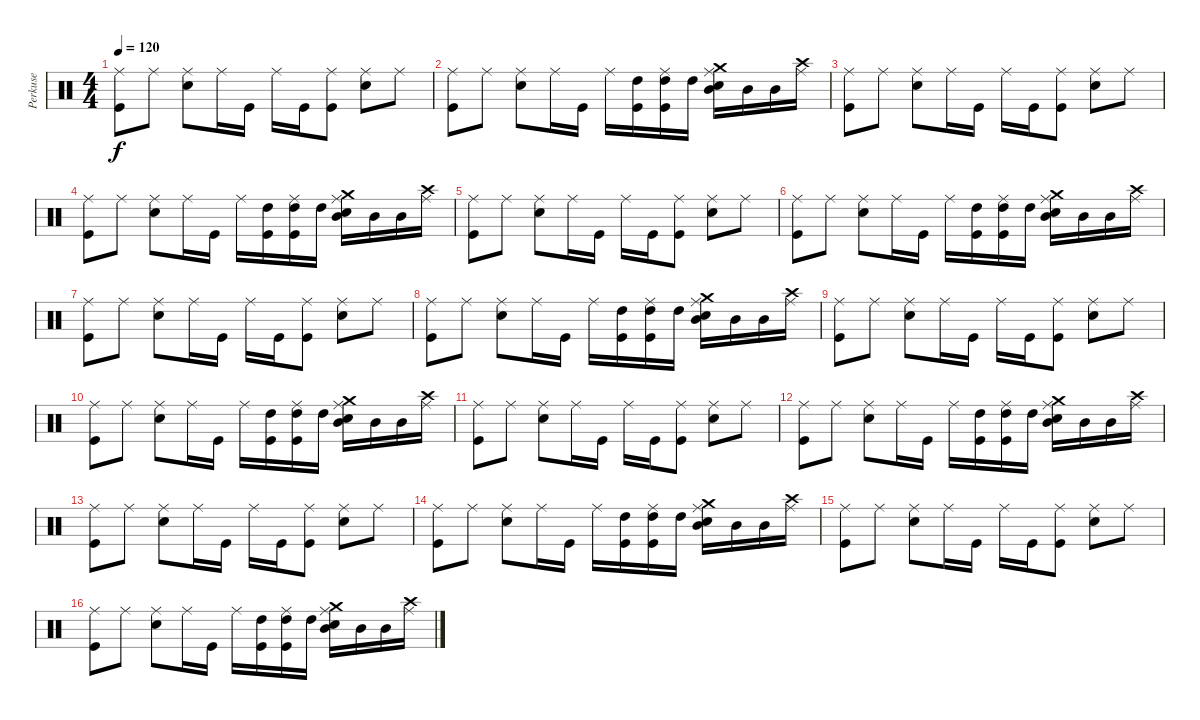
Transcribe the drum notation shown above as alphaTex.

\track ("Perkuse" "Perkuse") {instrument percussion}
\staff {score}
\articulation defaults
\ts (4 4)
\tempo 120
\clef neutral
\ks c
("Ride (middle)" "Kick (hit)").8{dy f} "Ride (middle)".8 ("Ride (middle)" "Snare (hit) 2").8 "Ride (middle)".16 "Kick (hit)".16 "Ride (middle)".16 "Kick (hit)".16 ("Ride (middle)" "Kick (hit)").8 ("Ride (middle)" "Snare (hit) 2").8 "Ride (middle)".8 |
("Ride (middle)" "Kick (hit)").8 "Ride (middle)".8 ("Ride (middle)" "Snare (hit) 2").8 "Ride (middle)".16 "Kick (hit)".16 "Ride (middle)".16 ("Kick (hit)" "High Tom (hit)").16 ("Ride (middle)" "Kick (hit)" "High Tom (hit)").16 "High Tom (hit)".16 ("Ride (middle)" "Crash medium (hit)" "Snare (hit) 2" "Mid Tom (hit)").16 "Mid Tom (hit)".16 "Mid Tom (hit)".16 ("Ride (middle)" "Crash high (hit)").16 |
("Ride (middle)" "Kick (hit)").8 "Ride (middle)".8 ("Ride (middle)" "Snare (hit) 2").8 "Ride (middle)".16 "Kick (hit)".16 "Ride (middle)".16 "Kick (hit)".16 ("Ride (middle)" "Kick (hit)").8 ("Ride (middle)" "Snare (hit) 2").8 "Ride (middle)".8 |
("Ride (middle)" "Kick (hit)").8 "Ride (middle)".8 ("Ride (middle)" "Snare (hit) 2").8 "Ride (middle)".16 "Kick (hit)".16 "Ride (middle)".16 ("Kick (hit)" "High Tom (hit)").16 ("Ride (middle)" "Kick (hit)" "High Tom (hit)").16 "High Tom (hit)".16 ("Ride (middle)" "Crash medium (hit)" "Snare (hit) 2" "Mid Tom (hit)").16 "Mid Tom (hit)".16 "Mid Tom (hit)".16 ("Ride (middle)" "Crash high (hit)").16 |
("Ride (middle)" "Kick (hit)").8 "Ride (middle)".8 ("Ride (middle)" "Snare (hit) 2").8 "Ride (middle)".16 "Kick (hit)".16 "Ride (middle)".16 "Kick (hit)".16 ("Ride (middle)" "Kick (hit)").8 ("Ride (middle)" "Snare (hit) 2").8 "Ride (middle)".8 |
("Ride (middle)" "Kick (hit)").8 "Ride (middle)".8 ("Ride (middle)" "Snare (hit) 2").8 "Ride (middle)".16 "Kick (hit)".16 "Ride (middle)".16 ("Kick (hit)" "High Tom (hit)").16 ("Ride (middle)" "Kick (hit)" "High Tom (hit)").16 "High Tom (hit)".16 ("Ride (middle)" "Crash medium (hit)" "Snare (hit) 2" "Mid Tom (hit)").16 "Mid Tom (hit)".16 "Mid Tom (hit)".16 ("Ride (middle)" "Crash high (hit)").16 |
("Ride (middle)" "Kick (hit)").8 "Ride (middle)".8 ("Ride (middle)" "Snare (hit) 2").8 "Ride (middle)".16 "Kick (hit)".16 "Ride (middle)".16 "Kick (hit)".16 ("Ride (middle)" "Kick (hit)").8 ("Ride (middle)" "Snare (hit) 2").8 "Ride (middle)".8 |
("Ride (middle)" "Kick (hit)").8 "Ride (middle)".8 ("Ride (middle)" "Snare (hit) 2").8 "Ride (middle)".16 "Kick (hit)".16 "Ride (middle)".16 ("Kick (hit)" "High Tom (hit)").16 ("Ride (middle)" "Kick (hit)" "High Tom (hit)").16 "High Tom (hit)".16 ("Ride (middle)" "Crash medium (hit)" "Snare (hit) 2" "Mid Tom (hit)").16 "Mid Tom (hit)".16 "Mid Tom (hit)".16 ("Ride (middle)" "Crash high (hit)").16 |
("Ride (middle)" "Kick (hit)").8 "Ride (middle)".8 ("Ride (middle)" "Snare (hit) 2").8 "Ride (middle)".16 "Kick (hit)".16 "Ride (middle)".16 "Kick (hit)".16 ("Ride (middle)" "Kick (hit)").8 ("Ride (middle)" "Snare (hit) 2").8 "Ride (middle)".8 |
("Ride (middle)" "Kick (hit)").8 "Ride (middle)".8 ("Ride (middle)" "Snare (hit) 2").8 "Ride (middle)".16 "Kick (hit)".16 "Ride (middle)".16 ("Kick (hit)" "High Tom (hit)").16 ("Ride (middle)" "Kick (hit)" "High Tom (hit)").16 "High Tom (hit)".16 ("Ride (middle)" "Crash medium (hit)" "Snare (hit) 2" "Mid Tom (hit)").16 "Mid Tom (hit)".16 "Mid Tom (hit)".16 ("Ride (middle)" "Crash high (hit)").16 |
("Ride (middle)" "Kick (hit)").8 "Ride (middle)".8 ("Ride (middle)" "Snare (hit) 2").8 "Ride (middle)".16 "Kick (hit)".16 "Ride (middle)".16 "Kick (hit)".16 ("Ride (middle)" "Kick (hit)").8 ("Ride (middle)" "Snare (hit) 2").8 "Ride (middle)".8 |
("Ride (middle)" "Kick (hit)").8 "Ride (middle)".8 ("Ride (middle)" "Snare (hit) 2").8 "Ride (middle)".16 "Kick (hit)".16 "Ride (middle)".16 ("Kick (hit)" "High Tom (hit)").16 ("Ride (middle)" "Kick (hit)" "High Tom (hit)").16 "High Tom (hit)".16 ("Ride (middle)" "Crash medium (hit)" "Snare (hit) 2" "Mid Tom (hit)").16 "Mid Tom (hit)".16 "Mid Tom (hit)".16 ("Ride (middle)" "Crash high (hit)").16 |
("Ride (middle)" "Kick (hit)").8 "Ride (middle)".8 ("Ride (middle)" "Snare (hit) 2").8 "Ride (middle)".16 "Kick (hit)".16 "Ride (middle)".16 "Kick (hit)".16 ("Ride (middle)" "Kick (hit)").8 ("Ride (middle)" "Snare (hit) 2").8 "Ride (middle)".8 |
("Ride (middle)" "Kick (hit)").8 "Ride (middle)".8 ("Ride (middle)" "Snare (hit) 2").8 "Ride (middle)".16 "Kick (hit)".16 "Ride (middle)".16 ("Kick (hit)" "High Tom (hit)").16 ("Ride (middle)" "Kick (hit)" "High Tom (hit)").16 "High Tom (hit)".16 ("Ride (middle)" "Crash medium (hit)" "Snare (hit) 2" "Mid Tom (hit)").16 "Mid Tom (hit)".16 "Mid Tom (hit)".16 ("Ride (middle)" "Crash high (hit)").16 |
("Ride (middle)" "Kick (hit)").8 "Ride (middle)".8 ("Ride (middle)" "Snare (hit) 2").8 "Ride (middle)".16 "Kick (hit)".16 "Ride (middle)".16 "Kick (hit)".16 ("Ride (middle)" "Kick (hit)").8 ("Ride (middle)" "Snare (hit) 2").8 "Ride (middle)".8 |
("Ride (middle)" "Kick (hit)").8 "Ride (middle)".8 ("Ride (middle)" "Snare (hit) 2").8 "Ride (middle)".16 "Kick (hit)".16 "Ride (middle)".16 ("Kick (hit)" "High Tom (hit)").16 ("Ride (middle)" "Kick (hit)" "High Tom (hit)").16 "High Tom (hit)".16 ("Ride (middle)" "Crash medium (hit)" "Snare (hit) 2" "Mid Tom (hit)").16 "Mid Tom (hit)".16 "Mid Tom (hit)".16 ("Ride (middle)" "Crash high (hit)").16
